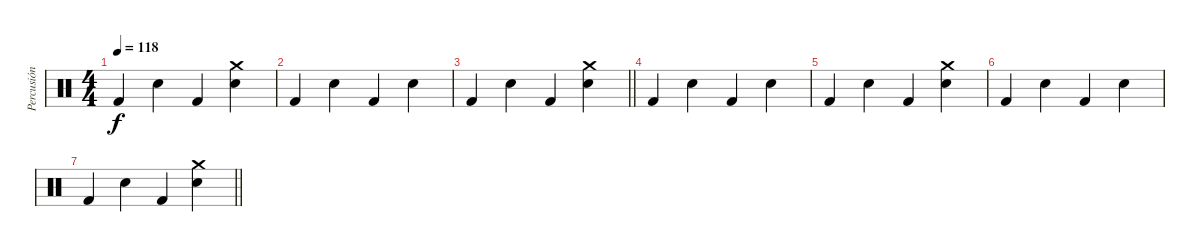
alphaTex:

\track ("Percusión" "Percusión") {instrument percussion}
\staff {score}
\articulation defaults
\ts (4 4)
\tempo 118
\clef neutral
\ks c "Kick (hit) 2".4{dy f} "Hand Clap (hit)".4 "Kick (hit) 2".4
("Hand Clap (hit)" "Crash medium (hit)").4 |
"Kick (hit) 2".4 "Hand Clap (hit)".4 "Kick (hit) 2".4 "Hand Clap (hit)".4 |
\barLineRight lightlight "Kick (hit) 2".4 "Hand Clap (hit)".4 "Kick (hit) 2".4
("Hand Clap (hit)" "Crash medium (hit)").4 |
"Kick (hit) 2".4 "Hand Clap (hit)".4 "Kick (hit) 2".4 "Hand Clap (hit)".4 |
"Kick (hit) 2".4 "Hand Clap (hit)".4 "Kick (hit) 2".4 ("Hand Clap (hit)" "Crash medium (hit)").4 |
"Kick (hit) 2".4 "Hand Clap (hit)".4 "Kick (hit) 2".4 "Hand Clap (hit)".4 |
\barLineRight lightlight "Kick (hit) 2".4 "Hand Clap (hit)".4 "Kick (hit) 2".4
("Hand Clap (hit)" "Crash medium (hit)").4
